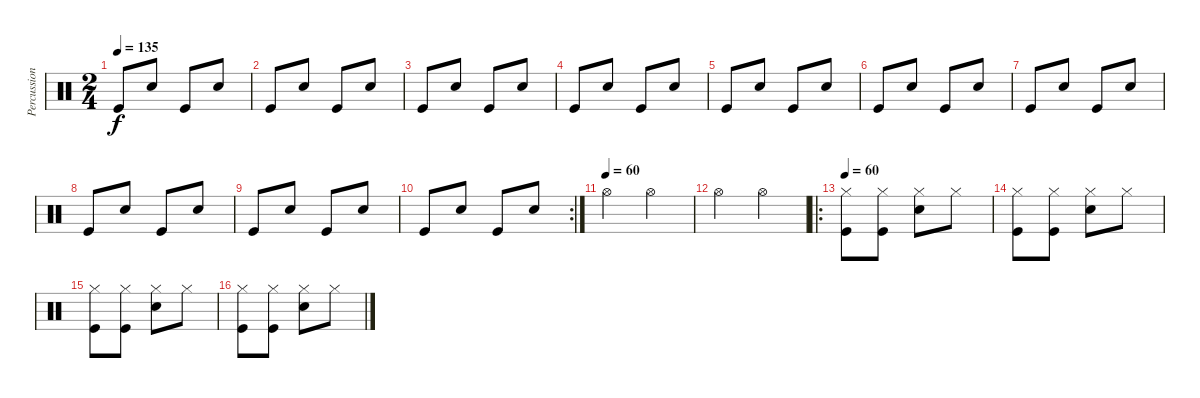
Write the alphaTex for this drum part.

\track ("Percussions" "Percussion") {instrument percussion}
\staff {score}
\articulation defaults
\ts (2 4)
\tempo 135
\clef neutral
\ks c "Kick (hit)".8{dy f} "Electric Snare (hit)".8 "Kick (hit)".8 "Electric Snare (hit)".8
|
"Kick (hit)".8 "Electric Snare (hit)".8 "Kick (hit)".8 "Electric Snare (hit)".8 |
"Kick (hit)".8 "Electric Snare (hit)".8 "Kick (hit)".8 "Electric Snare (hit)".8 |
"Kick (hit)".8 "Electric Snare (hit)".8 "Kick (hit)".8 "Electric Snare (hit)".8 |
"Kick (hit)".8 "Electric Snare (hit)".8 "Kick (hit)".8 "Electric Snare (hit)".8 |
"Kick (hit)".8 "Electric Snare (hit)".8 "Kick (hit)".8 "Electric Snare (hit)".8 |
"Kick (hit)".8 "Electric Snare (hit)".8 "Kick (hit)".8 "Electric Snare (hit)".8 |
"Kick (hit)".8 "Electric Snare (hit)".8 "Kick (hit)".8 "Electric Snare (hit)".8 |
"Kick (hit)".8 "Electric Snare (hit)".8 "Kick (hit)".8 "Electric Snare (hit)".8 |
\rc 2 "Kick (hit)".8 "Electric Snare (hit)".8 "Kick (hit)".8 "Electric Snare (hit)".8
|
\tempo (60)
"Hi-Hat (open)".4 "Hi-Hat (open)".4 |
"Hi-Hat (open)".4 "Hi-Hat (open)".4 |
\ro
\tempo 60
("Hi-Hat (closed)" "Kick (hit)").8 ("Hi-Hat (closed)" "Kick (hit)").8 ("Hi-Hat (closed)" "Electric Snare (hit)").8 "Hi-Hat (closed)".8 |
("Hi-Hat (closed)" "Kick (hit)").8 ("Hi-Hat (closed)" "Kick (hit)").8 ("Hi-Hat (closed)" "Electric Snare (hit)").8 "Hi-Hat (closed)".8 |
("Hi-Hat (closed)" "Kick (hit)").8 ("Hi-Hat (closed)" "Kick (hit)").8 ("Hi-Hat (closed)" "Electric Snare (hit)").8 "Hi-Hat (closed)".8 |
("Hi-Hat (closed)" "Kick (hit)").8 ("Hi-Hat (closed)" "Kick (hit)").8 ("Hi-Hat (closed)" "Electric Snare (hit)").8 "Hi-Hat (closed)".8
